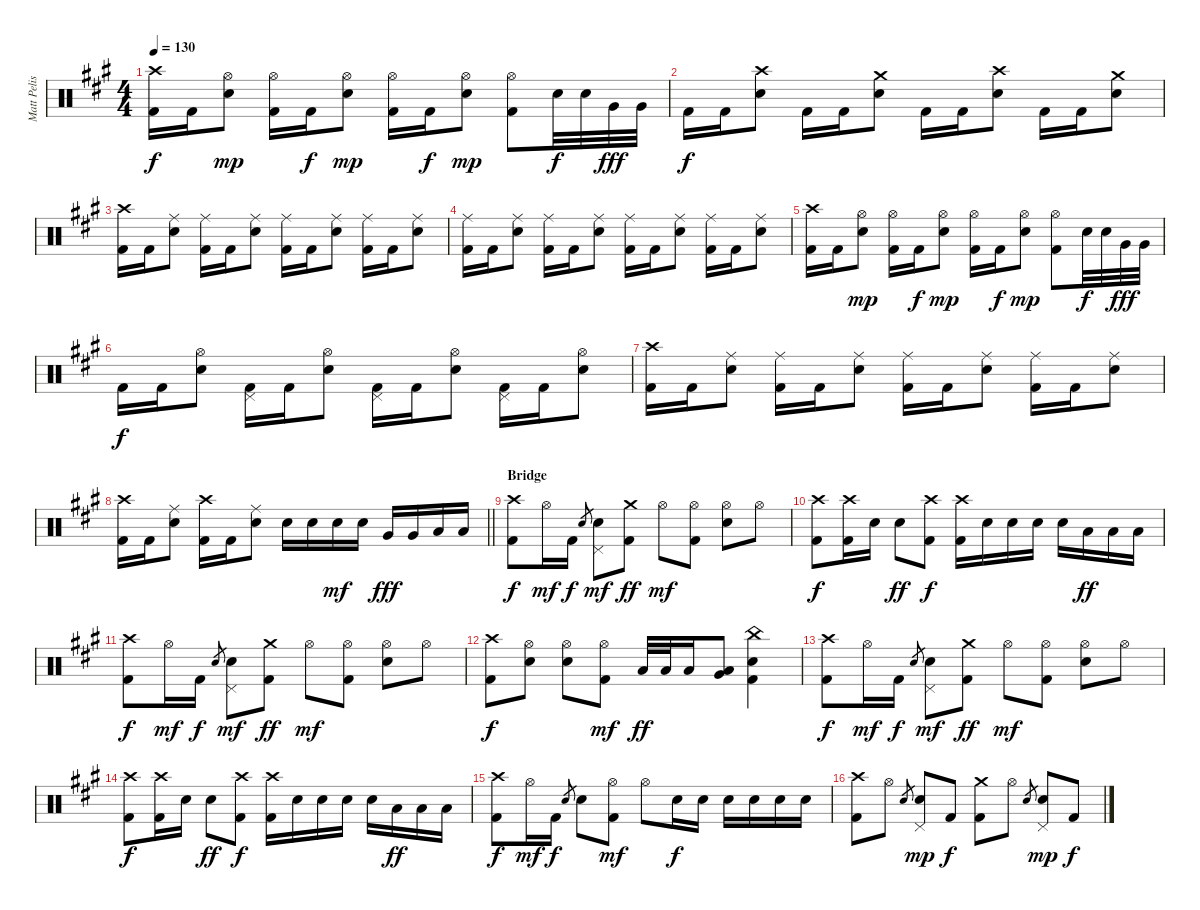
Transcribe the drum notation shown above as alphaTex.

\track ("Matt Pelissier" "Matt Pelis") {instrument percussion}
\staff {score}
\articulation defaults
\ts (4 4)
\tempo 130
\clef neutral
\ks a
("Crash high (hit)" "Kick (hit) 2").16{dy f} "Kick (hit) 2".16 ("Hi-Hat (open)" "Snare (hit) 2").8{dy mp} ("Hi-Hat (open)" "Kick (hit) 2").16 "Kick (hit) 2".16{dy f} ("Hi-Hat (open)" "Snare (hit) 2").8{dy mp} ("Hi-Hat (open)" "Kick (hit) 2").16 "Kick (hit) 2".16{dy f} ("Hi-Hat (open)" "Snare (hit) 2").8{dy mp} ("Hi-Hat (open)" "Kick (hit) 2").8 "Snare (hit) 2".32{dy f} "Snare (hit) 2".32 "Very Low Tom (hit)".32{dy fff} "Very Low Tom (hit)".32 |
"Kick (hit) 2".16{dy f} "Kick (hit) 2".16 ("Crash high (hit)" "Snare (hit) 2").8 "Kick (hit) 2".16 "Kick (hit) 2".16 ("Crash medium (hit)" "Snare (hit) 2").8 "Kick (hit) 2".16 "Kick (hit) 2".16 ("Crash high (hit)" "Snare (hit) 2").8 "Kick (hit) 2".16 "Kick (hit) 2".16 ("Crash medium (hit)" "Snare (hit) 2").8 |
("Crash high (hit)" "Kick (hit) 2").16 "Kick (hit) 2".16 ("Ride (middle)" "Snare (hit) 2").8 ("Ride (middle)" "Kick (hit) 2").16 "Kick (hit) 2".16 ("Ride (middle)" "Snare (hit) 2").8 ("Ride (middle)" "Kick (hit) 2").16 "Kick (hit) 2".16 ("Ride (middle)" "Snare (hit) 2").8 ("Ride (middle)" "Kick (hit) 2").16 "Kick (hit) 2".16 ("Ride (middle)" "Snare (hit) 2").8 |
("Ride (middle)" "Kick (hit) 2").16 "Kick (hit) 2".16 ("Ride (middle)" "Snare (hit) 2").8 ("Ride (middle)" "Kick (hit) 2").16 "Kick (hit) 2".16 ("Ride (middle)" "Snare (hit) 2").8 ("Ride (middle)" "Kick (hit) 2").16 "Kick (hit) 2".16 ("Ride (middle)" "Snare (hit) 2").8 ("Ride (middle)" "Kick (hit) 2").16 "Kick (hit) 2".16 ("Ride (middle)" "Snare (hit) 2").8 |
("Crash high (hit)" "Kick (hit) 2").16 "Kick (hit) 2".16 ("Hi-Hat (open)" "Snare (hit) 2").8{dy mp} ("Hi-Hat (open)" "Kick (hit) 2").16 "Kick (hit) 2".16{dy f} ("Hi-Hat (open)" "Snare (hit) 2").8{dy mp} ("Hi-Hat (open)" "Kick (hit) 2").16 "Kick (hit) 2".16{dy f} ("Hi-Hat (open)" "Snare (hit) 2").8{dy mp} ("Hi-Hat (open)" "Kick (hit) 2").8 "Snare (hit) 2".32{dy f} "Snare (hit) 2".32 "Very Low Tom (hit)".32{dy fff} "Very Low Tom (hit)".32 |
"Kick (hit) 2".16{dy f} "Kick (hit) 2".16 ("Hi-Hat (open)" "Snare (hit) 2").8 ("Pedal Hi-Hat (hit)" "Kick (hit) 2").16 "Kick (hit) 2".16 ("Hi-Hat (open)" "Snare (hit) 2").8 ("Pedal Hi-Hat (hit)" "Kick (hit) 2").16 "Kick (hit) 2".16 ("Hi-Hat (open)" "Snare (hit) 2").8 ("Pedal Hi-Hat (hit)" "Kick (hit) 2").16 "Kick (hit) 2".16 ("Hi-Hat (open)" "Snare (hit) 2").8 |
("Crash high (hit)" "Kick (hit) 2").16 "Kick (hit) 2".16 ("Ride (middle)" "Snare (hit) 2").8 ("Ride (middle)" "Kick (hit) 2").16 "Kick (hit) 2".16 ("Ride (middle)" "Snare (hit) 2").8 ("Ride (middle)" "Kick (hit) 2").16 "Kick (hit) 2".16 ("Ride (middle)" "Snare (hit) 2").8 ("Ride (middle)" "Kick (hit) 2").16 "Kick (hit) 2".16 ("Ride (middle)" "Snare (hit) 2").8 |
\barLineRight lightlight
("Crash high (hit)" "Kick (hit) 2").16 "Kick (hit) 2".16 ("Ride (middle)" "Snare (hit) 2").8 ("Crash high (hit)" "Kick (hit) 2").16 "Kick (hit) 2".16 ("Ride (middle)" "Snare (hit) 2").8 "Snare (hit) 2".16 "Snare (hit) 2".16 "Snare (hit) 2".16{dy mf} "Snare (hit) 2".16 "Very Low Tom (hit)".16{dy fff} "Very Low Tom (hit)".16 "Low Floor Tom (hit)".16 "Low Floor Tom (hit)".16 |
\section ("" "Bridge")
("Crash high (hit)" "Kick (hit) 2").8{dy f} "Hi-Hat (open)".16{dy mf} "Kick (hit) 2".16{dy f} "Snare (hit) 2".8{gr} ("Snare (hit) 2" "Pedal Hi-Hat (hit)").8{dy mf} ("Crash medium (hit)" "Kick (hit) 2").8{dy ff} "Hi-Hat (open)".8{dy mf} ("Hi-Hat (open)" "Kick (hit) 2").8 ("Hi-Hat (open)" "Snare (hit) 2").8 "Hi-Hat (open)".8 |
("Crash high (hit)" "Kick (hit) 2").8{dy f} ("Crash high (hit)" "Kick (hit) 2").16 "Snare (hit) 2".16 "Snare (hit) 2".8{dy ff} ("Crash high (hit)" "Kick (hit) 2").8{dy f} ("Crash high (hit)" "Kick (hit) 2").16 "Snare (hit) 2".16 "Snare (hit) 2".16 "Snare (hit) 2".16 "Snare (hit) 2".16 "Low Tom (hit)".16{dy ff} "Low Tom (hit)".16 "Low Tom (hit)".16 |
("Crash high (hit)" "Kick (hit) 2").8{dy f} "Hi-Hat (open)".16{dy mf} "Kick (hit) 2".16{dy f} "Snare (hit) 2".8{gr} ("Snare (hit) 2" "Pedal Hi-Hat (hit)").8{dy mf} ("Crash medium (hit)" "Kick (hit) 2").8{dy ff} "Hi-Hat (open)".8{dy mf} ("Hi-Hat (open)" "Kick (hit) 2").8 ("Hi-Hat (open)" "Snare (hit) 2").8 "Hi-Hat (open)".8 |
("Crash high (hit)" "Kick (hit) 2").8{dy f} ("Hi-Hat (open)" "Snare (hit) 2").8 ("Hi-Hat (open)" "Snare (hit) 2").8 ("Hi-Hat (open)" "Kick (hit) 2").8{dy mf} "Low Tom (hit)".32{dy ff} "Low Tom (hit)".32 "Low Tom (hit)".16 ("Low Tom (hit)" "Very Low Tom (hit)").8 ("China (hit)" "Snare (hit) 2" "Kick (hit) 2").4 |
("Crash high (hit)" "Kick (hit) 2").8{dy f} "Hi-Hat (open)".16{dy mf} "Kick (hit) 2".16{dy f} "Snare (hit) 2".8{gr} ("Snare (hit) 2" "Pedal Hi-Hat (hit)").8{dy mf} ("Crash medium (hit)" "Kick (hit) 2").8{dy ff} "Hi-Hat (open)".8{dy mf} ("Hi-Hat (open)" "Kick (hit) 2").8 ("Hi-Hat (open)" "Snare (hit) 2").8 "Hi-Hat (open)".8 |
("Crash high (hit)" "Kick (hit) 2").8{dy f} ("Crash high (hit)" "Kick (hit) 2").16 "Snare (hit) 2".16 "Snare (hit) 2".8{dy ff} ("Crash high (hit)" "Kick (hit) 2").8{dy f} ("Crash high (hit)" "Kick (hit) 2").16 "Snare (hit) 2".16 "Snare (hit) 2".16 "Snare (hit) 2".16 "Snare (hit) 2".16 "Low Tom (hit)".16{dy ff} "Low Tom (hit)".16 "Low Tom (hit)".16 |
("Crash high (hit)" "Kick (hit) 2").8{dy f} "Hi-Hat (open)".16{dy mf} "Kick (hit) 2".16{dy f} "Snare (hit) 2".8{gr} "Snare (hit) 2".8 ("Hi-Hat (open)" "Kick (hit) 2").8{dy mf} "Hi-Hat (open)".8 "Snare (hit) 2".16{dy f} "Snare (hit) 2".16 "Snare (hit) 2".16 "Snare (hit) 2".16 "Snare (hit) 2".16 "Snare (hit) 2".16 |
("Crash high (hit)" "Kick (hit) 2").8 "Hi-Hat (open)".8 "Snare (hit) 2".8{gr} ("Snare (hit) 2" "Pedal Hi-Hat (hit)").8{dy mp} "Kick (hit) 2".8{dy f} ("Crash medium (hit)" "Kick (hit) 2").8 "Hi-Hat (open)".8 "Snare (hit) 2".8{gr} ("Snare (hit) 2" "Pedal Hi-Hat (hit)").8{dy mp} "Kick (hit) 2".8{dy f}
